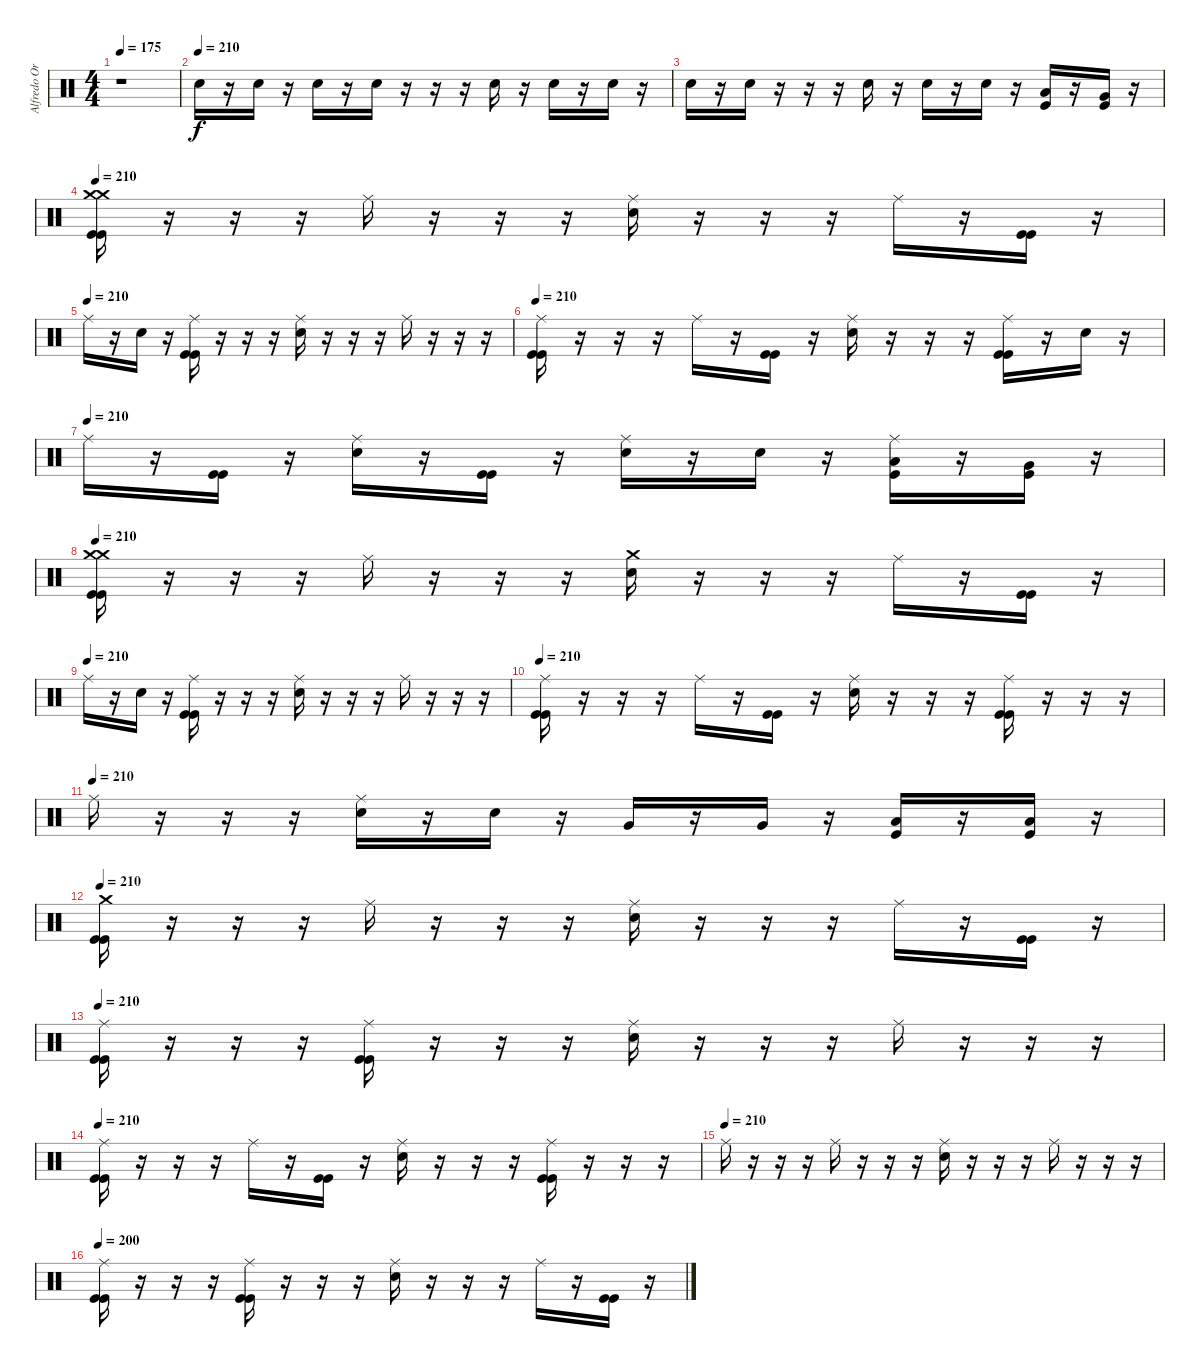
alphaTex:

\track ("Alfredo Ortiz" "Alfredo Or") {instrument percussion}
\staff {score}
\articulation defaults
\ts (4 4)
\tempo 175
\clef neutral
\ks c
r.1{dy f} |
\tempo (210)
"Snare (hit) 2".16{volume 13} r.16 "Snare (hit) 2".16 r.16 "Snare (hit) 2".16 r.16 "Snare (hit) 2".16 r.16 r.16 r.16 "Snare (hit) 2".16 r.16 "Snare (hit) 2".16 r.16 "Snare (hit) 2".16 r.16 |
"Snare (hit) 2".16 r.16 "Snare (hit) 2".16 r.16 r.16 r.16 "Snare (hit) 2".16 r.16 "Snare (hit) 2".16 r.16 "Snare (hit) 2".16 r.16 ("Low Tom (hit)" "Kick (hit)").16 r.16 ("Very Low Tom (hit)" "Kick (hit)").16 r.16 |
\tempo 210
("Crash medium (hit)" "Crash medium (hit)" "Kick (hit)" "Kick (hit)").16{volume 13} r.16 r.16 r.16 "Ride (middle)".16 r.16 r.16 r.16 ("Ride (middle)" "Snare (hit) 2").16 r.16 r.16 r.16 "Ride (middle)".16 r.16 ("Kick (hit)" "Kick (hit)").16 r.16 |
\tempo (210)
"Ride (middle)".16 r.16 "Snare (hit) 2".16 r.16 ("Ride (middle)" "Kick (hit)" "Kick (hit)").16 r.16 r.16 r.16 ("Ride (middle)" "Snare (hit) 2").16 r.16 r.16 r.16 "Ride (middle)".16 r.16 r.16 r.16 |
\tempo 210
("Ride (middle)" "Kick (hit)" "Kick (hit)").16 r.16 r.16 r.16 "Ride (middle)".16 r.16 ("Kick (hit)" "Kick (hit)").16 r.16 ("Ride (middle)" "Snare (hit) 2").16 r.16 r.16 r.16 ("Ride (middle)" "Kick (hit)" "Kick (hit)").16 r.16 "Snare (hit) 2".16 r.16 |
\tempo (210)
"Ride (middle)".16 r.16 ("Kick (hit)" "Kick (hit)").16 r.16 ("Ride (middle)" "Snare (hit) 2").16 r.16 ("Kick (hit)" "Kick (hit)").16 r.16 ("Ride (middle)" "Snare (hit) 2").16 r.16 "Snare (hit) 2".16 r.16 ("Ride (middle)" "Low Tom (hit)" "Kick (hit)").16 r.16 ("Very Low Tom (hit)" "Kick (hit)").16 r.16 |
\tempo 210
("Crash medium (hit)" "Crash medium (hit)" "Kick (hit)" "Kick (hit)").16 r.16 r.16 r.16 "Ride (middle)".16 r.16 r.16 r.16 ("Crash medium (hit)" "Snare (hit) 2").16 r.16 r.16 r.16 "Ride (middle)".16 r.16 ("Kick (hit)" "Kick (hit)").16 r.16 |
\tempo (210)
"Ride (middle)".16 r.16 "Snare (hit) 2".16 r.16 ("Ride (middle)" "Kick (hit)" "Kick (hit)").16 r.16 r.16 r.16 ("Ride (middle)" "Snare (hit) 2").16 r.16 r.16 r.16 "Ride (middle)".16 r.16 r.16 r.16 |
\tempo 210
("Ride (middle)" "Kick (hit)" "Kick (hit)").16 r.16 r.16 r.16 "Ride (middle)".16 r.16 ("Kick (hit)" "Kick (hit)").16 r.16 ("Ride (middle)" "Snare (hit) 2").16 r.16 r.16 r.16 ("Ride (middle)" "Kick (hit)" "Kick (hit)").16 r.16 r.16 r.16 |
\tempo (210)
"Ride (middle)".16 r.16 r.16 r.16 ("Ride (middle)" "Snare (hit) 2").16 r.16 "Snare (hit) 2".16 r.16 "Very Low Tom (hit)".16 r.16 "Very Low Tom (hit)".16 r.16 ("Low Floor Tom (hit)" "Kick (hit)").16 r.16 ("Low Floor Tom (hit)" "Kick (hit)").16 r.16 |
\tempo 210
("Crash medium (hit)" "Kick (hit)" "Kick (hit)").16{volume 7} r.16 r.16 r.16 "Ride (middle)".16 r.16 r.16 r.16 ("Ride (middle)" "Snare (hit) 2").16 r.16 r.16 r.16 "Ride (middle)".16 r.16 ("Kick (hit)" "Kick (hit)").16 r.16 |
\tempo 210
("Ride (middle)" "Kick (hit)" "Kick (hit)").16 r.16 r.16 r.16 ("Ride (middle)" "Kick (hit)" "Kick (hit)").16 r.16 r.16 r.16 ("Ride (middle)" "Snare (hit) 2").16 r.16 r.16 r.16 "Ride (middle)".16 r.16 r.16 r.16 |
\tempo 210
("Ride (middle)" "Kick (hit)" "Kick (hit)").16 r.16 r.16 r.16 "Ride (middle)".16 r.16 ("Kick (hit)" "Kick (hit)").16 r.16 ("Ride (middle)" "Snare (hit) 2").16 r.16 r.16 r.16 ("Ride (middle)" "Kick (hit)" "Kick (hit)").16 r.16 r.16 r.16 |
\tempo (210)
"Ride (middle)".16 r.16 r.16 r.16 "Ride (middle)".16 r.16 r.16 r.16 ("Ride (middle)" "Snare (hit) 2").16 r.16 r.16 r.16 "Ride (middle)".16 r.16 r.16 r.16 |
\tempo 210
\tempo 200
("Ride (middle)" "Kick (hit)" "Kick (hit)").16{volume 7} r.16 r.16 r.16 ("Ride (middle)" "Kick (hit)" "Kick (hit)").16 r.16 r.16 r.16 ("Ride (middle)" "Snare (hit) 2").16 r.16 r.16 r.16 "Ride (middle)".16 r.16 ("Kick (hit)" "Kick (hit)").16 r.16
